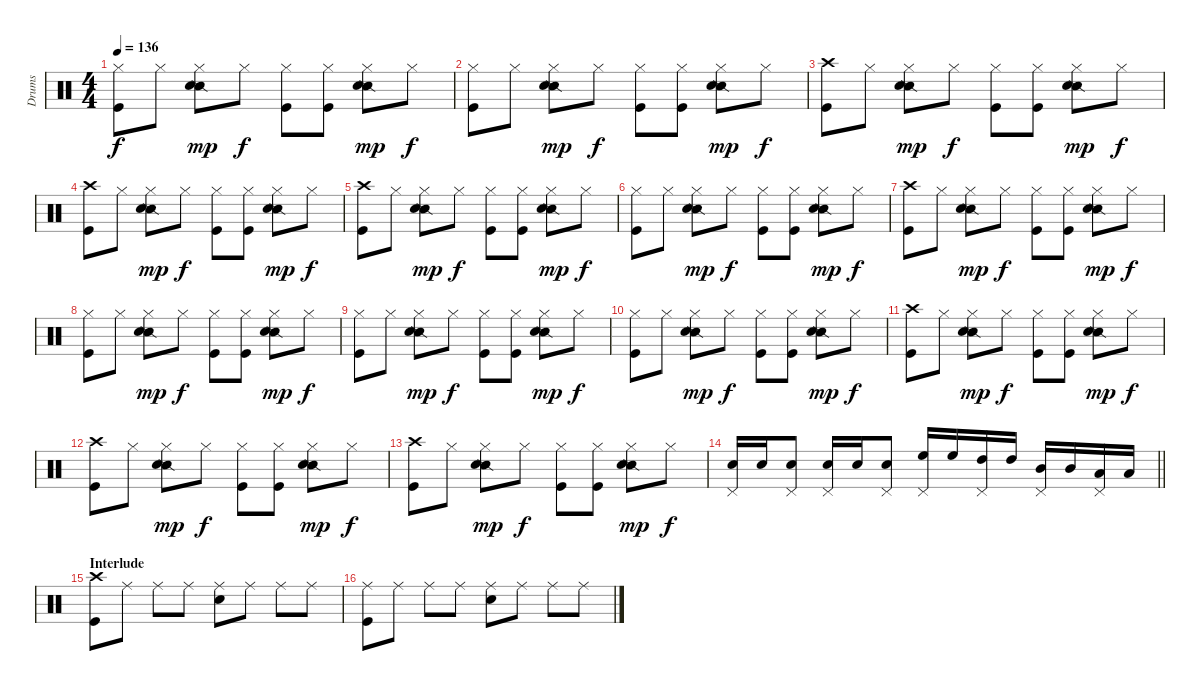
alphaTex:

\track ("Drums" "Drums") {instrument percussion}
\staff {score}
\articulation defaults
\ts (4 4)
\tempo 136
\clef neutral
\ks c
("Hi-Hat (closed)" "Kick (hit)").8{dy f} "Hi-Hat (closed)".8 ("Hi-Hat (closed)" "Snare (side stick) 2" "Snare (hit) 2").8{dy mp} "Hi-Hat (closed)".8{dy f} ("Hi-Hat (closed)" "Kick (hit)").8 ("Hi-Hat (closed)" "Kick (hit)").8 ("Hi-Hat (closed)" "Snare (side stick) 2" "Snare (hit) 2").8{dy mp} "Hi-Hat (closed)".8{dy f} |
("Hi-Hat (closed)" "Kick (hit)").8 "Hi-Hat (closed)".8 ("Hi-Hat (closed)" "Snare (side stick) 2" "Snare (hit) 2").8{dy mp} "Hi-Hat (closed)".8{dy f} ("Hi-Hat (closed)" "Kick (hit)").8 ("Hi-Hat (closed)" "Kick (hit)").8 ("Hi-Hat (closed)" "Snare (side stick) 2" "Snare (hit) 2").8{dy mp} "Hi-Hat (closed)".8{dy f} |
("Crash high (hit)" "Kick (hit)").8 "Hi-Hat (closed)".8 ("Hi-Hat (closed)" "Snare (side stick) 2" "Snare (hit) 2").8{dy mp} "Hi-Hat (closed)".8{dy f} ("Hi-Hat (closed)" "Kick (hit)").8 ("Hi-Hat (closed)" "Kick (hit)").8 ("Hi-Hat (closed)" "Snare (side stick) 2" "Snare (hit) 2").8{dy mp} "Hi-Hat (closed)".8{dy f} |
("Crash high (hit)" "Kick (hit)").8 "Hi-Hat (closed)".8 ("Hi-Hat (closed)" "Snare (side stick) 2" "Snare (hit) 2").8{dy mp} "Hi-Hat (closed)".8{dy f} ("Hi-Hat (closed)" "Kick (hit)").8 ("Hi-Hat (closed)" "Kick (hit)").8 ("Hi-Hat (closed)" "Snare (side stick) 2" "Snare (hit) 2").8{dy mp} "Hi-Hat (closed)".8{dy f} |
("Crash high (hit)" "Kick (hit)").8 "Hi-Hat (closed)".8 ("Hi-Hat (closed)" "Snare (side stick) 2" "Snare (hit) 2").8{dy mp} "Hi-Hat (closed)".8{dy f} ("Hi-Hat (closed)" "Kick (hit)").8 ("Hi-Hat (closed)" "Kick (hit)").8 ("Hi-Hat (closed)" "Snare (side stick) 2" "Snare (hit) 2").8{dy mp} "Hi-Hat (closed)".8{dy f} |
("Hi-Hat (closed)" "Kick (hit)").8 "Hi-Hat (closed)".8 ("Hi-Hat (closed)" "Snare (side stick) 2" "Snare (hit) 2").8{dy mp} "Hi-Hat (closed)".8{dy f} ("Hi-Hat (closed)" "Kick (hit)").8 ("Hi-Hat (closed)" "Kick (hit)").8 ("Hi-Hat (closed)" "Snare (side stick) 2" "Snare (hit) 2").8{dy mp} "Hi-Hat (closed)".8{dy f} |
("Crash high (hit)" "Kick (hit)").8 "Hi-Hat (closed)".8 ("Hi-Hat (closed)" "Snare (side stick) 2" "Snare (hit) 2").8{dy mp} "Hi-Hat (closed)".8{dy f} ("Hi-Hat (closed)" "Kick (hit)").8 ("Hi-Hat (closed)" "Kick (hit)").8 ("Hi-Hat (closed)" "Snare (side stick) 2" "Snare (hit) 2").8{dy mp} "Hi-Hat (closed)".8{dy f} |
("Hi-Hat (closed)" "Kick (hit)").8 "Hi-Hat (closed)".8 ("Hi-Hat (closed)" "Snare (side stick) 2" "Snare (hit) 2").8{dy mp} "Hi-Hat (closed)".8{dy f} ("Hi-Hat (closed)" "Kick (hit)").8 ("Hi-Hat (closed)" "Kick (hit)").8 ("Hi-Hat (closed)" "Snare (side stick) 2" "Snare (hit) 2").8{dy mp} "Hi-Hat (closed)".8{dy f} |
("Hi-Hat (closed)" "Kick (hit)").8 "Hi-Hat (closed)".8 ("Hi-Hat (closed)" "Snare (side stick) 2" "Snare (hit) 2").8{dy mp} "Hi-Hat (closed)".8{dy f} ("Hi-Hat (closed)" "Kick (hit)").8 ("Hi-Hat (closed)" "Kick (hit)").8 ("Hi-Hat (closed)" "Snare (side stick) 2" "Snare (hit) 2").8{dy mp} "Hi-Hat (closed)".8{dy f} |
("Hi-Hat (closed)" "Kick (hit)").8 "Hi-Hat (closed)".8 ("Hi-Hat (closed)" "Snare (side stick) 2" "Snare (hit) 2").8{dy mp} "Hi-Hat (closed)".8{dy f} ("Hi-Hat (closed)" "Kick (hit)").8 ("Hi-Hat (closed)" "Kick (hit)").8 ("Hi-Hat (closed)" "Snare (side stick) 2" "Snare (hit) 2").8{dy mp} "Hi-Hat (closed)".8{dy f} |
("Crash high (hit)" "Kick (hit)").8 "Hi-Hat (closed)".8 ("Hi-Hat (closed)" "Snare (side stick) 2" "Snare (hit) 2").8{dy mp} "Hi-Hat (closed)".8{dy f} ("Hi-Hat (closed)" "Kick (hit)").8 ("Hi-Hat (closed)" "Kick (hit)").8 ("Hi-Hat (closed)" "Snare (side stick) 2" "Snare (hit) 2").8{dy mp} "Hi-Hat (closed)".8{dy f} |
("Crash high (hit)" "Kick (hit)").8 "Hi-Hat (closed)".8 ("Hi-Hat (closed)" "Snare (side stick) 2" "Snare (hit) 2").8{dy mp} "Hi-Hat (closed)".8{dy f} ("Hi-Hat (closed)" "Kick (hit)").8 ("Hi-Hat (closed)" "Kick (hit)").8 ("Hi-Hat (closed)" "Snare (side stick) 2" "Snare (hit) 2").8{dy mp} "Hi-Hat (closed)".8{dy f} |
("Crash high (hit)" "Kick (hit)").8 "Hi-Hat (closed)".8 ("Hi-Hat (closed)" "Snare (side stick) 2" "Snare (hit) 2").8{dy mp} "Hi-Hat (closed)".8{dy f} ("Hi-Hat (closed)" "Kick (hit)").8 ("Hi-Hat (closed)" "Kick (hit)").8 ("Hi-Hat (closed)" "Snare (side stick) 2" "Snare (hit) 2").8{dy mp} "Hi-Hat (closed)".8{dy f} |
\barLineRight lightlight
("Pedal Hi-Hat (hit)" "Snare (hit) 2").16 "Snare (hit) 2".16 ("Pedal Hi-Hat (hit)" "Snare (hit) 2").8 ("Pedal Hi-Hat (hit)" "Snare (hit) 2").16 "Snare (hit) 2".16 ("Pedal Hi-Hat (hit)" "Snare (hit) 2").8 ("Pedal Hi-Hat (hit)" "High Floor Tom (hit)").16 "High Floor Tom (hit)".16 ("Pedal Hi-Hat (hit)" "High Tom (hit)").16 "High Tom (hit)".16 ("Pedal Hi-Hat (hit)" "Mid Tom (hit)").16 "Mid Tom (hit)".16 ("Pedal Hi-Hat (hit)" "Low Tom (hit)").16 "Low Tom (hit)".16 |
\section ("" "Interlude")
("Crash high (hit)" "Kick (hit)").8 "Ride (middle)".8 "Ride (middle)".8 "Ride (middle)".8 ("Ride (middle)" "Snare (hit) 2").8 "Ride (middle)".8 "Ride (middle)".8 "Ride (middle)".8 |
("Ride (middle)" "Kick (hit)").8 "Ride (middle)".8 "Ride (middle)".8 "Ride (middle)".8 ("Ride (middle)" "Snare (hit) 2").8 "Ride (middle)".8 "Ride (middle)".8 "Ride (middle)".8
